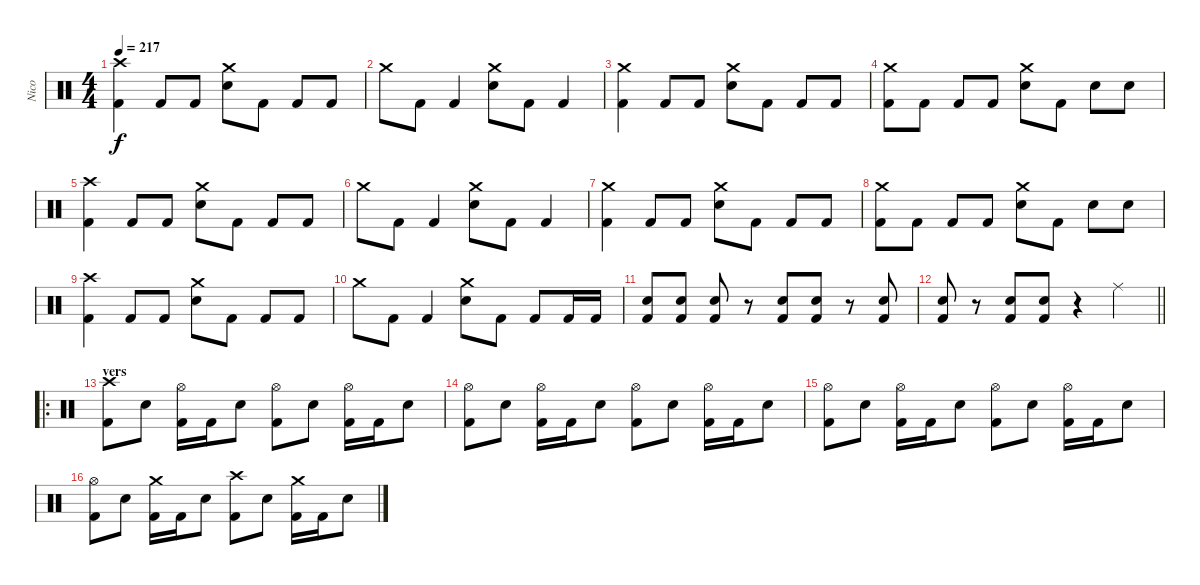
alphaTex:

\track ("Nico" "Nico") {instrument percussion}
\staff {score}
\articulation defaults
\ts (4 4)
\tempo 217
\clef neutral
\ks c
("Crash high (hit)" "Kick (hit) 2").4{dy f} "Kick (hit) 2".8 "Kick (hit) 2".8 ("Crash medium (hit)" "Electric Snare (hit)").8 "Kick (hit) 2".8 "Kick (hit) 2".8 "Kick (hit) 2".8 |
"Crash medium (hit)".8 "Kick (hit) 2".8 "Kick (hit) 2".4 ("Crash medium (hit)" "Electric Snare (hit)").8 "Kick (hit) 2".8 "Kick (hit) 2".4 |
("Crash medium (hit)" "Kick (hit) 2").4 "Kick (hit) 2".8 "Kick (hit) 2".8 ("Crash medium (hit)" "Electric Snare (hit)").8 "Kick (hit) 2".8 "Kick (hit) 2".8 "Kick (hit) 2".8 |
("Crash medium (hit)" "Kick (hit) 2").8 "Kick (hit) 2".8 "Kick (hit) 2".8 "Kick (hit) 2".8 ("Crash medium (hit)" "Electric Snare (hit)").8 "Kick (hit) 2".8 "Electric Snare (hit)".8 "Electric Snare (hit)".8 |
("Crash high (hit)" "Kick (hit) 2").4 "Kick (hit) 2".8 "Kick (hit) 2".8 ("Crash medium (hit)" "Electric Snare (hit)").8 "Kick (hit) 2".8 "Kick (hit) 2".8 "Kick (hit) 2".8 |
"Crash medium (hit)".8 "Kick (hit) 2".8 "Kick (hit) 2".4 ("Crash medium (hit)" "Electric Snare (hit)").8 "Kick (hit) 2".8 "Kick (hit) 2".4 |
("Crash medium (hit)" "Kick (hit) 2").4 "Kick (hit) 2".8 "Kick (hit) 2".8 ("Crash medium (hit)" "Electric Snare (hit)").8 "Kick (hit) 2".8 "Kick (hit) 2".8 "Kick (hit) 2".8 |
("Crash medium (hit)" "Kick (hit) 2").8 "Kick (hit) 2".8 "Kick (hit) 2".8 "Kick (hit) 2".8 ("Crash medium (hit)" "Electric Snare (hit)").8 "Kick (hit) 2".8 "Electric Snare (hit)".8 "Electric Snare (hit)".8 |
("Crash high (hit)" "Kick (hit) 2").4 "Kick (hit) 2".8 "Kick (hit) 2".8 ("Crash medium (hit)" "Electric Snare (hit)").8 "Kick (hit) 2".8 "Kick (hit) 2".8 "Kick (hit) 2".8 |
"Crash medium (hit)".8 "Kick (hit) 2".8 "Kick (hit) 2".4 ("Crash medium (hit)" "Electric Snare (hit)").8 "Kick (hit) 2".8 "Kick (hit) 2".8 "Kick (hit) 2".16 "Kick (hit) 2".16 |
("Electric Snare (hit)" "Kick (hit) 2").8 ("Electric Snare (hit)" "Kick (hit) 2").8 ("Electric Snare (hit)" "Kick (hit) 2").8 r.8 ("Electric Snare (hit)" "Kick (hit) 2").8 ("Electric Snare (hit)" "Kick (hit) 2").8 r.8 ("Electric Snare (hit)" "Kick (hit) 2").8 |
\barLineRight lightlight
("Electric Snare (hit)" "Kick (hit) 2").8 r.8 ("Electric Snare (hit)" "Kick (hit) 2").8 ("Electric Snare (hit)" "Kick (hit) 2").8 r.4 "Ride (middle)".4 |
\ro
\section ("" "vers")
("Crash high (hit)" "Kick (hit) 2").8 "Electric Snare (hit)".8 ("Hi-Hat (open)" "Kick (hit) 2").16 "Kick (hit) 2".16 "Electric Snare (hit)".8 ("Hi-Hat (open)" "Kick (hit) 2").8 "Electric Snare (hit)".8 ("Hi-Hat (open)" "Kick (hit) 2").16 "Kick (hit) 2".16 "Electric Snare (hit)".8 |
("Hi-Hat (open)" "Kick (hit) 2").8 "Electric Snare (hit)".8 ("Hi-Hat (open)" "Kick (hit) 2").16 "Kick (hit) 2".16 "Electric Snare (hit)".8 ("Hi-Hat (open)" "Kick (hit) 2").8 "Electric Snare (hit)".8 ("Hi-Hat (open)" "Kick (hit) 2").16 "Kick (hit) 2".16 "Electric Snare (hit)".8 |
("Hi-Hat (open)" "Kick (hit) 2").8 "Electric Snare (hit)".8 ("Hi-Hat (open)" "Kick (hit) 2").16 "Kick (hit) 2".16 "Electric Snare (hit)".8 ("Hi-Hat (open)" "Kick (hit) 2").8 "Electric Snare (hit)".8 ("Hi-Hat (open)" "Kick (hit) 2").16 "Kick (hit) 2".16 "Electric Snare (hit)".8 |
("Hi-Hat (open)" "Kick (hit) 2").8 "Electric Snare (hit)".8 ("Crash medium (hit)" "Kick (hit) 2").16 "Kick (hit) 2".16 "Electric Snare (hit)".8 ("Crash high (hit)" "Kick (hit) 2").8 "Electric Snare (hit)".8 ("Crash medium (hit)" "Kick (hit) 2").16 "Kick (hit) 2".16 "Electric Snare (hit)".8
